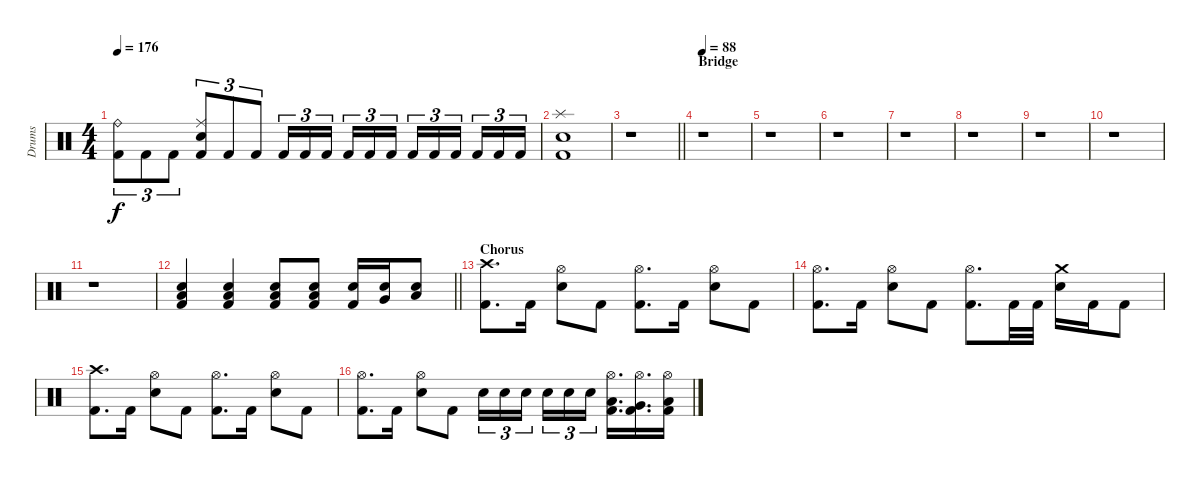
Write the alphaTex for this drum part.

\track ("Drums" "Drums") {instrument percussion}
\staff {score}
\articulation defaults
\ts (4 4)
\tempo 176
\clef neutral
\ks c
("Ride (bell)" "Kick (hit) 2").8{tu (3 2) dy f} "Kick (hit) 2".8{tu (3 2)} "Kick (hit) 2".8{tu (3 2)} ("Ride (middle)" "Snare (hit) 2" "Kick (hit) 2").8{tu (3 2)} "Kick (hit) 2".8{tu (3 2)} "Kick (hit) 2".8{tu (3 2)} "Kick (hit) 2".16{tu (3 2)} "Kick (hit) 2".16{tu (3 2)} "Kick (hit) 2".16{tu (3 2) beam splitsecondary} "Kick (hit) 2".16{tu (3 2)} "Kick (hit) 2".16{tu (3 2)} "Kick (hit) 2".16{tu (3 2)} "Kick (hit) 2".16{tu (3 2)} "Kick (hit) 2".16{tu (3 2)} "Kick (hit) 2".16{tu (3 2) beam splitsecondary} "Kick (hit) 2".16{tu (3 2)} "Kick (hit) 2".16{tu (3 2)} "Kick (hit) 2".16{tu (3 2)} |
("Splash (hit)" "Snare (hit) 2" "Kick (hit) 2").1 |
\barLineRight lightlight
r.1 |
\section ("" "Bridge")
\tempo 88
r.1 |
r.1 |
r.1 |
r.1 |
r.1 |
r.1 |
r.1 |
r.1 |
\barLineRight lightlight
("Snare (hit) 2" "Low Floor Tom (hit)" "Kick (hit) 2").4 ("Snare (hit) 2" "Low Floor Tom (hit)" "Kick (hit) 2").4 ("Snare (hit) 2" "Low Floor Tom (hit)" "Kick (hit) 2").8 ("Snare (hit) 2" "Low Floor Tom (hit)" "Kick (hit) 2").8 ("Snare (hit) 2" "Kick (hit) 2").16 ("Snare (hit) 2" "Very Low Tom (hit)").16 ("Snare (hit) 2" "Low Tom (hit)").8 |
\section ("" "Chorus")
("Crash high (hit)" "Kick (hit) 2").8{d} "Kick (hit) 2".16 ("Hi-Hat (open)" "Snare (hit) 2").8 "Kick (hit) 2".8 ("Hi-Hat (open)" "Kick (hit) 2").8{d} "Kick (hit) 2".16 ("Hi-Hat (open)" "Snare (hit) 2").8 "Kick (hit) 2".8 |
("Hi-Hat (open)" "Kick (hit) 2").8{d} "Kick (hit) 2".16 ("Hi-Hat (open)" "Snare (hit) 2").8 "Kick (hit) 2".8 ("Hi-Hat (open)" "Kick (hit) 2").8{d} "Kick (hit) 2".32 "Kick (hit) 2".32 ("Crash medium (hit)" "Snare (hit) 2").16 "Kick (hit) 2".16 "Kick (hit) 2".8 |
("Crash high (hit)" "Kick (hit) 2").8{d} "Kick (hit) 2".16 ("Hi-Hat (open)" "Snare (hit) 2").8 "Kick (hit) 2".8 ("Hi-Hat (open)" "Kick (hit) 2").8{d} "Kick (hit) 2".16 ("Hi-Hat (open)" "Snare (hit) 2").8 "Kick (hit) 2".8 |
("Hi-Hat (open)" "Kick (hit) 2").8{d} "Kick (hit) 2".16 ("Hi-Hat (open)" "Snare (hit) 2").8 "Kick (hit) 2".8 "Snare (hit) 2".16{tu (3 2)} "Snare (hit) 2".16{tu (3 2)} "Snare (hit) 2".16{tu (3 2) beam splitsecondary} "Snare (hit) 2".16{tu (3 2)} "Snare (hit) 2".16{tu (3 2)} "Snare (hit) 2".16{tu (3 2)} ("Hi-Hat (open)" "Low Tom (hit)" "Kick (hit) 2").16{d} ("Hi-Hat (open)" "Very Low Tom (hit)" "Kick (hit) 2").16{d} ("Hi-Hat (open)" "Low Floor Tom (hit)" "Kick (hit) 2").16
